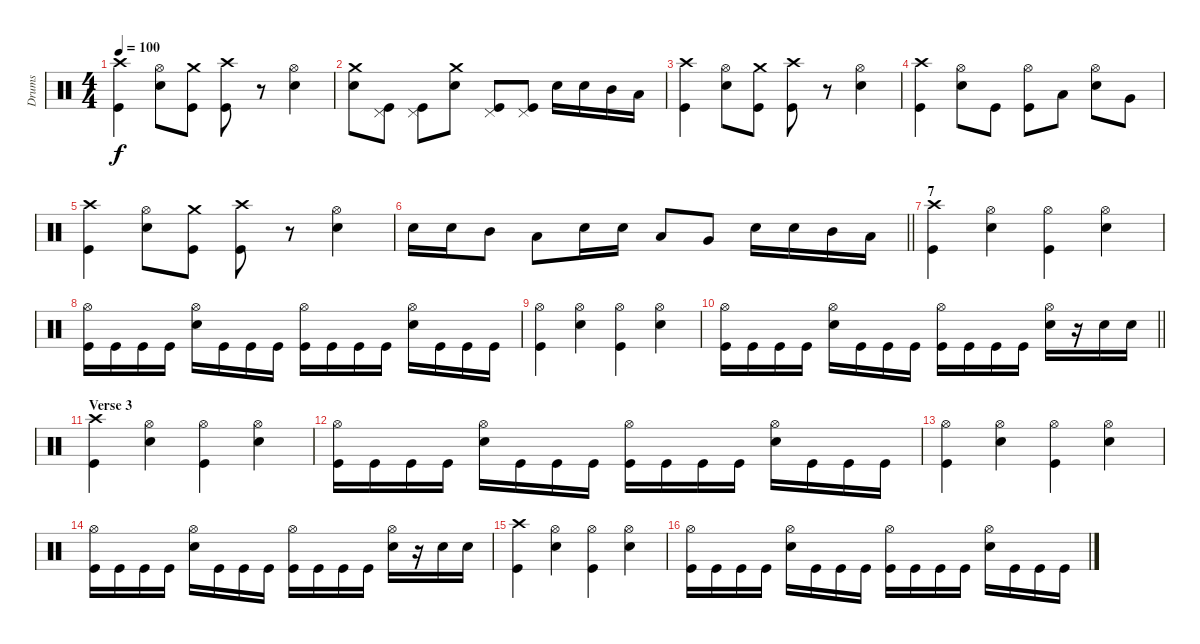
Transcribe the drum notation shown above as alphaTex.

\track ("Drums" "Drums") {instrument percussion}
\staff {score}
\articulation defaults
\ts (4 4)
\tempo 100
\clef neutral
\ks c
("Crash high (hit)" "Kick (hit)").4{dy f} ("Hi-Hat (open)" "Electric Snare (hit)").8 ("Crash medium (hit)" "Kick (hit)").8 ("Crash high (hit)" "Kick (hit)").8 r.8 ("Hi-Hat (open)" "Electric Snare (hit)").4 |
("Crash medium (hit)" "Electric Snare (hit)").8 ("Pedal Hi-Hat (hit)" "Kick (hit)").8 ("Pedal Hi-Hat (hit)" "Kick (hit)").8 ("Crash medium (hit)" "Electric Snare (hit)").8 ("Pedal Hi-Hat (hit)" "Kick (hit)").8 ("Pedal Hi-Hat (hit)" "Kick (hit)").8 "Electric Snare (hit)".16 "Electric Snare (hit)".16 "Mid Tom (hit)".16 "Low Tom (hit)".16 |
("Crash high (hit)" "Kick (hit)").4 ("Hi-Hat (open)" "Electric Snare (hit)").8 ("Crash medium (hit)" "Kick (hit)").8 ("Crash high (hit)" "Kick (hit)").8 r.8 ("Hi-Hat (open)" "Electric Snare (hit)").4 |
("Crash high (hit)" "Kick (hit)").4 ("Hi-Hat (open)" "Electric Snare (hit)").8 "Kick (hit)".8 ("Hi-Hat (open)" "Kick (hit)").8 "Low Tom (hit)".8 ("Hi-Hat (open)" "Electric Snare (hit)").8 "Very Low Tom (hit)".8 |
("Crash high (hit)" "Kick (hit)").4 ("Hi-Hat (open)" "Electric Snare (hit)").8 ("Crash medium (hit)" "Kick (hit)").8 ("Crash high (hit)" "Kick (hit)").8 r.8 ("Hi-Hat (open)" "Electric Snare (hit)").4 |
\barLineRight lightlight "Electric Snare (hit)".16 "Electric Snare (hit)".16 "Mid Tom (hit)".8 "Low Tom (hit)".8 "Electric Snare (hit)".16 "Electric Snare (hit)".16 "Low Tom (hit)".8 "Very Low Tom (hit)".8 "Electric Snare (hit)".16 "Electric Snare (hit)".16 "Mid Tom (hit)".16 "Low Tom (hit)".16
|
\section ("" "7")
("Crash high (hit)" "Kick (hit)").4 ("Hi-Hat (open)" "Electric Snare (hit)").4 ("Hi-Hat (open)" "Kick (hit)").4 ("Hi-Hat (open)" "Electric Snare (hit)").4 |
("Hi-Hat (open)" "Kick (hit)").16 "Kick (hit)".16 "Kick (hit)".16 "Kick (hit)".16 ("Hi-Hat (open)" "Electric Snare (hit)").16 "Kick (hit)".16 "Kick (hit)".16 "Kick (hit)".16 ("Hi-Hat (open)" "Kick (hit)").16 "Kick (hit)".16 "Kick (hit)".16 "Kick (hit)".16 ("Hi-Hat (open)" "Electric Snare (hit)").16 "Kick (hit)".16 "Kick (hit)".16 "Kick (hit)".16 |
("Hi-Hat (open)" "Kick (hit)").4 ("Hi-Hat (open)" "Electric Snare (hit)").4 ("Hi-Hat (open)" "Kick (hit)").4 ("Hi-Hat (open)" "Electric Snare (hit)").4 |
\barLineRight lightlight
("Hi-Hat (open)" "Kick (hit)").16 "Kick (hit)".16 "Kick (hit)".16 "Kick (hit)".16 ("Hi-Hat (open)" "Electric Snare (hit)").16 "Kick (hit)".16 "Kick (hit)".16 "Kick (hit)".16 ("Hi-Hat (open)" "Kick (hit)").16 "Kick (hit)".16 "Kick (hit)".16 "Kick (hit)".16 ("Hi-Hat (open)" "Electric Snare (hit)").16 r.16 "Electric Snare (hit)".16 "Electric Snare (hit)".16 |
\section ("" "Verse 3")
("Crash high (hit)" "Kick (hit)").4 ("Hi-Hat (open)" "Electric Snare (hit)").4 ("Hi-Hat (open)" "Kick (hit)").4 ("Hi-Hat (open)" "Electric Snare (hit)").4 |
("Hi-Hat (open)" "Kick (hit)").16 "Kick (hit)".16 "Kick (hit)".16 "Kick (hit)".16 ("Hi-Hat (open)" "Electric Snare (hit)").16 "Kick (hit)".16 "Kick (hit)".16 "Kick (hit)".16 ("Hi-Hat (open)" "Kick (hit)").16 "Kick (hit)".16 "Kick (hit)".16 "Kick (hit)".16 ("Hi-Hat (open)" "Electric Snare (hit)").16 "Kick (hit)".16 "Kick (hit)".16 "Kick (hit)".16 |
("Hi-Hat (open)" "Kick (hit)").4 ("Hi-Hat (open)" "Electric Snare (hit)").4 ("Hi-Hat (open)" "Kick (hit)").4 ("Hi-Hat (open)" "Electric Snare (hit)").4 |
("Hi-Hat (open)" "Kick (hit)").16 "Kick (hit)".16 "Kick (hit)".16 "Kick (hit)".16 ("Hi-Hat (open)" "Electric Snare (hit)").16 "Kick (hit)".16 "Kick (hit)".16 "Kick (hit)".16 ("Hi-Hat (open)" "Kick (hit)").16 "Kick (hit)".16 "Kick (hit)".16 "Kick (hit)".16 ("Hi-Hat (open)" "Electric Snare (hit)").16 r.16 "Electric Snare (hit)".16 "Electric Snare (hit)".16 |
("Crash high (hit)" "Kick (hit)").4 ("Hi-Hat (open)" "Electric Snare (hit)").4 ("Hi-Hat (open)" "Kick (hit)").4 ("Hi-Hat (open)" "Electric Snare (hit)").4 |
("Hi-Hat (open)" "Kick (hit)").16 "Kick (hit)".16 "Kick (hit)".16 "Kick (hit)".16 ("Hi-Hat (open)" "Electric Snare (hit)").16 "Kick (hit)".16 "Kick (hit)".16 "Kick (hit)".16 ("Hi-Hat (open)" "Kick (hit)").16 "Kick (hit)".16 "Kick (hit)".16 "Kick (hit)".16 ("Hi-Hat (open)" "Electric Snare (hit)").16 "Kick (hit)".16 "Kick (hit)".16 "Kick (hit)".16
